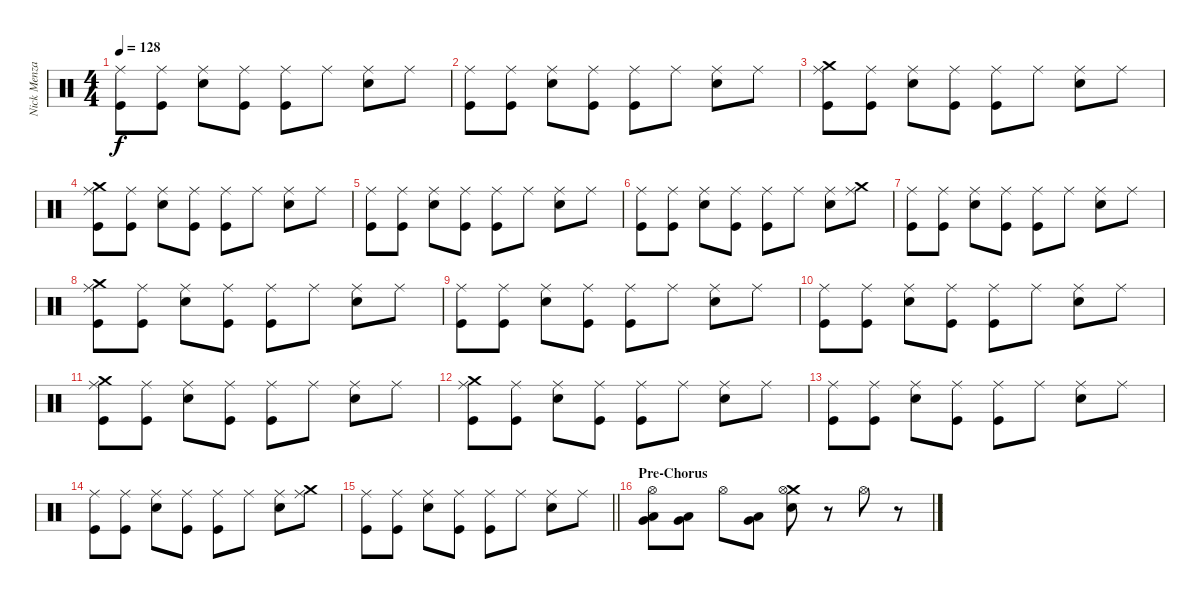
\track ("Nick Menza" "Nick Menza") {instrument percussion}
\staff {score}
\articulation defaults
\ts (4 4)
\tempo 128
\clef neutral
\ks c
("Ride (middle)" "Kick (hit)").8{dy f} ("Ride (middle)" "Kick (hit)").8 ("Ride (middle)" "Electric Snare (hit)").8 ("Ride (middle)" "Kick (hit)").8 ("Kick (hit)" "Ride (middle)").8 "Ride (middle)".8 ("Ride (middle)" "Electric Snare (hit)").8 "Ride (middle)".8 |
("Ride (middle)" "Kick (hit)").8 ("Ride (middle)" "Kick (hit)").8 ("Ride (middle)" "Electric Snare (hit)").8 ("Ride (middle)" "Kick (hit)").8 ("Kick (hit)" "Ride (middle)").8 "Ride (middle)".8 ("Ride (middle)" "Electric Snare (hit)").8 "Ride (middle)".8 |
("Crash medium (hit)" "Ride (middle)" "Kick (hit)").8 ("Ride (middle)" "Kick (hit)").8 ("Ride (middle)" "Electric Snare (hit)").8 ("Ride (middle)" "Kick (hit)").8 ("Kick (hit)" "Ride (middle)").8 "Ride (middle)".8 ("Ride (middle)" "Electric Snare (hit)").8 "Ride (middle)".8 |
("Crash medium (hit)" "Ride (middle)" "Kick (hit)").8 ("Ride (middle)" "Kick (hit)").8 ("Ride (middle)" "Electric Snare (hit)").8 ("Ride (middle)" "Kick (hit)").8 ("Kick (hit)" "Ride (middle)").8 "Ride (middle)".8 ("Ride (middle)" "Electric Snare (hit)").8 "Ride (middle)".8 |
("Ride (middle)" "Kick (hit)").8 ("Ride (middle)" "Kick (hit)").8 ("Ride (middle)" "Electric Snare (hit)").8 ("Ride (middle)" "Kick (hit)").8 ("Kick (hit)" "Ride (middle)").8 "Ride (middle)".8 ("Ride (middle)" "Electric Snare (hit)").8 "Ride (middle)".8 |
("Ride (middle)" "Kick (hit)").8 ("Ride (middle)" "Kick (hit)").8 ("Ride (middle)" "Electric Snare (hit)").8 ("Ride (middle)" "Kick (hit)").8 ("Kick (hit)" "Ride (middle)").8 "Ride (middle)".8 ("Ride (middle)" "Electric Snare (hit)").8 ("Crash medium (hit)" "Ride (middle)").8 |
("Ride (middle)" "Kick (hit)").8 ("Ride (middle)" "Kick (hit)").8 ("Ride (middle)" "Electric Snare (hit)").8 ("Ride (middle)" "Kick (hit)").8 ("Kick (hit)" "Ride (middle)").8 "Ride (middle)".8 ("Ride (middle)" "Electric Snare (hit)").8 "Ride (middle)".8 |
("Ride (middle)" "Crash medium (hit)" "Kick (hit)").8 ("Ride (middle)" "Kick (hit)").8 ("Ride (middle)" "Electric Snare (hit)").8 ("Ride (middle)" "Kick (hit)").8 ("Kick (hit)" "Ride (middle)").8 "Ride (middle)".8 ("Ride (middle)" "Electric Snare (hit)").8 "Ride (middle)".8 |
("Ride (middle)" "Kick (hit)").8 ("Ride (middle)" "Kick (hit)").8 ("Ride (middle)" "Electric Snare (hit)").8 ("Ride (middle)" "Kick (hit)").8 ("Kick (hit)" "Ride (middle)").8 "Ride (middle)".8 ("Ride (middle)" "Electric Snare (hit)").8 "Ride (middle)".8 |
("Ride (middle)" "Kick (hit)").8 ("Ride (middle)" "Kick (hit)").8 ("Ride (middle)" "Electric Snare (hit)").8 ("Ride (middle)" "Kick (hit)").8 ("Kick (hit)" "Ride (middle)").8 "Ride (middle)".8 ("Ride (middle)" "Electric Snare (hit)").8 "Ride (middle)".8 |
("Crash medium (hit)" "Ride (middle)" "Kick (hit)").8 ("Ride (middle)" "Kick (hit)").8 ("Ride (middle)" "Electric Snare (hit)").8 ("Ride (middle)" "Kick (hit)").8 ("Kick (hit)" "Ride (middle)").8 "Ride (middle)".8 ("Ride (middle)" "Electric Snare (hit)").8 "Ride (middle)".8 |
("Crash medium (hit)" "Ride (middle)" "Kick (hit)").8 ("Ride (middle)" "Kick (hit)").8 ("Ride (middle)" "Electric Snare (hit)").8 ("Ride (middle)" "Kick (hit)").8 ("Kick (hit)" "Ride (middle)").8 "Ride (middle)".8 ("Ride (middle)" "Electric Snare (hit)").8 "Ride (middle)".8 |
("Ride (middle)" "Kick (hit)").8 ("Ride (middle)" "Kick (hit)").8 ("Ride (middle)" "Electric Snare (hit)").8 ("Ride (middle)" "Kick (hit)").8 ("Kick (hit)" "Ride (middle)").8 "Ride (middle)".8 ("Ride (middle)" "Electric Snare (hit)").8 "Ride (middle)".8 |
("Ride (middle)" "Kick (hit)").8 ("Ride (middle)" "Kick (hit)").8 ("Ride (middle)" "Electric Snare (hit)").8 ("Ride (middle)" "Kick (hit)").8 ("Kick (hit)" "Ride (middle)").8 "Ride (middle)".8 ("Ride (middle)" "Electric Snare (hit)").8 ("Crash medium (hit)" "Ride (middle)").8 |
\barLineRight lightlight
("Ride (middle)" "Kick (hit)").8 ("Ride (middle)" "Kick (hit)").8 ("Ride (middle)" "Electric Snare (hit)").8 ("Ride (middle)" "Kick (hit)").8 ("Kick (hit)" "Ride (middle)").8 "Ride (middle)".8 ("Ride (middle)" "Electric Snare (hit)").8 "Ride (middle)".8 |
\section ("" "Pre-Chorus")
("Low Tom (hit)" "Very Low Tom (hit)" "Hi-Hat (open)").8 ("Very Low Tom (hit)" "Low Tom (hit)").8 "Hi-Hat (open)".8 ("Low Tom (hit)" "Very Low Tom (hit)").8 ("Electric Snare (hit)" "Crash medium (hit)" "Hi-Hat (open)").8 r.8 "Hi-Hat (open)".8 r.8
